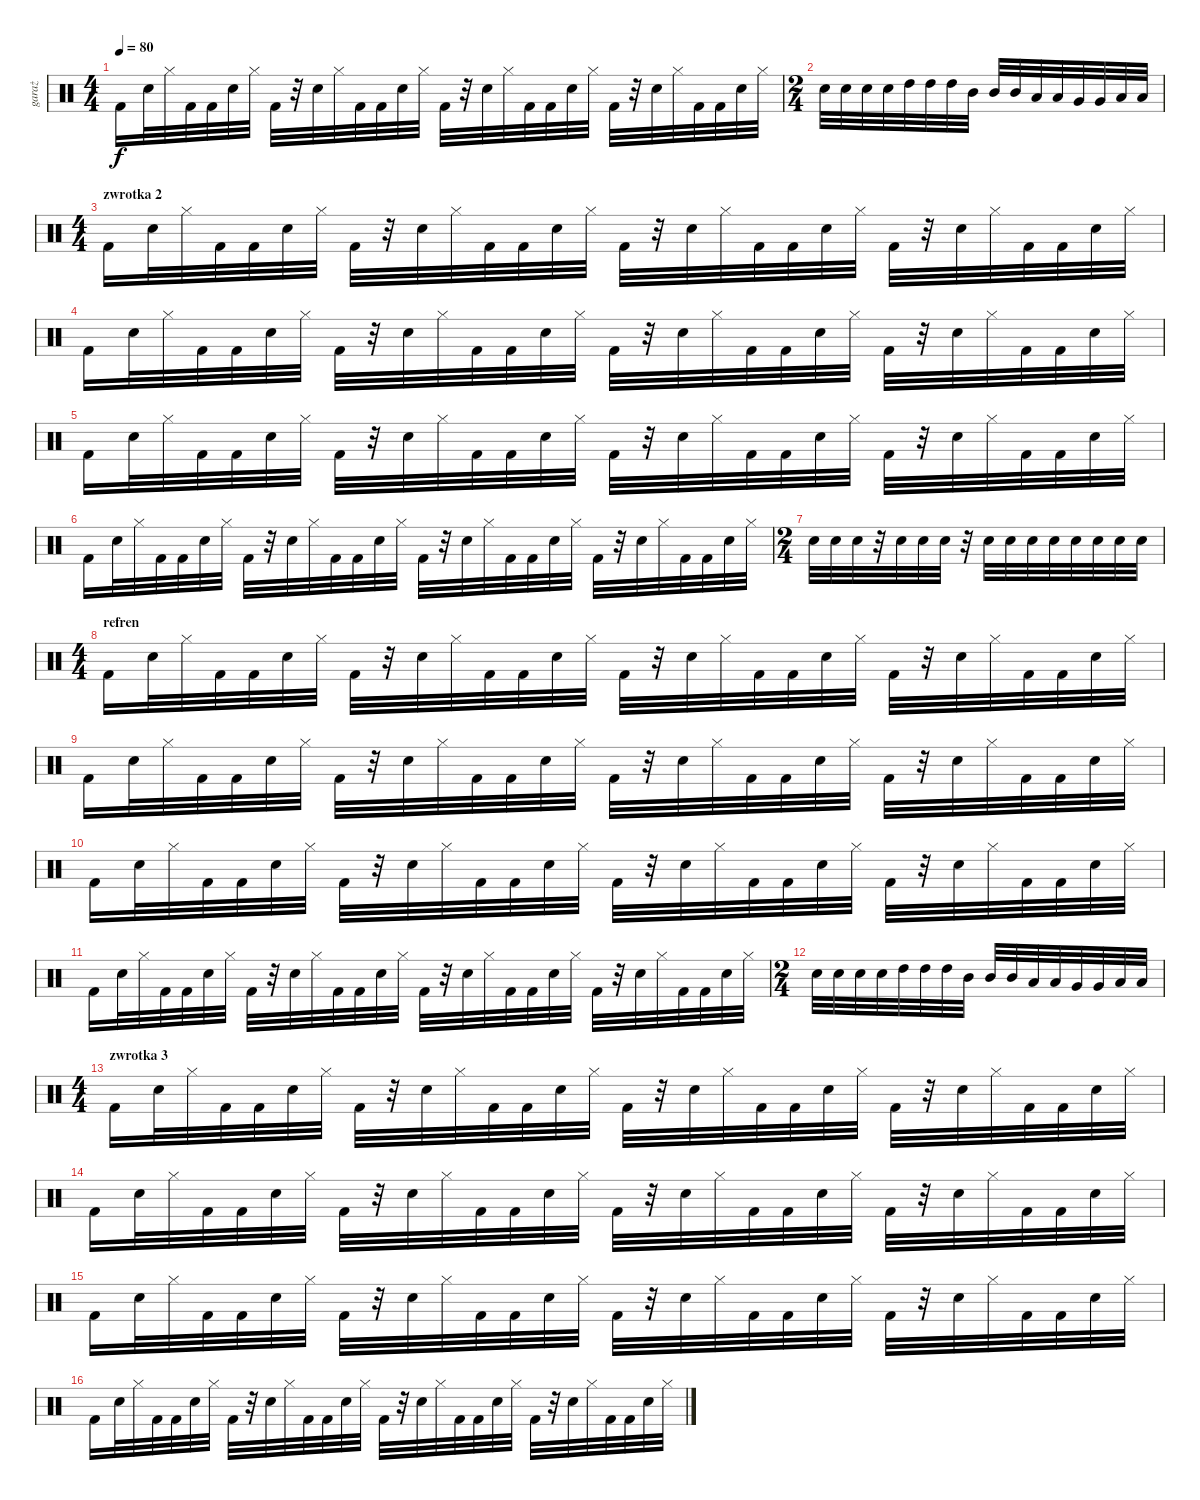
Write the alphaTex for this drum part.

\track ("garaż" "garaż") {instrument percussion}
\staff {score}
\articulation defaults
\ts (4 4)
\tempo 80
\clef neutral
\ks c "Kick (hit) 2".16{dy f} "Snare (hit) 2".32 "Hi-Hat (closed)".32 "Kick (hit) 2".32 "Kick (hit) 2".32 "Snare (hit) 2".32 "Hi-Hat (closed)".32 "Kick (hit) 2".32
r.32 "Snare (hit) 2".32 "Hi-Hat (closed)".32 "Kick (hit) 2".32 "Kick (hit) 2".32 "Snare (hit) 2".32 "Hi-Hat (closed)".32 "Kick (hit) 2".32 r.32 "Snare (hit) 2".32 "Hi-Hat (closed)".32 "Kick (hit) 2".32 "Kick (hit) 2".32 "Snare (hit) 2".32 "Hi-Hat (closed)".32 "Kick (hit) 2".32 r.32 "Snare (hit) 2".32 "Hi-Hat (closed)".32 "Kick (hit) 2".32 "Kick (hit) 2".32 "Snare (hit) 2".32 "Hi-Hat (closed)".32 |
\ts (2 4)
"Snare (hit) 2".32 "Snare (hit) 2".32 "Snare (hit) 2".32 "Snare (hit) 2".32 "High Tom (hit)".32 "High Tom (hit)".32 "High Tom (hit)".32 "Mid Tom (hit)".32 "Mid Tom (hit)".32 "Mid Tom (hit)".32 "Low Tom (hit)".32 "Low Tom (hit)".32 "Very Low Tom (hit)".32 "Very Low Tom (hit)".32 "Low Floor Tom (hit)".32 "Low Floor Tom (hit)".32 |
\ts (4 4)
\section ("" "zwrotka 2")
"Kick (hit) 2".16 "Snare (hit) 2".32 "Hi-Hat (closed)".32 "Kick (hit) 2".32 "Kick (hit) 2".32 "Snare (hit) 2".32 "Hi-Hat (closed)".32 "Kick (hit) 2".32 r.32 "Snare (hit) 2".32 "Hi-Hat (closed)".32 "Kick (hit) 2".32 "Kick (hit) 2".32 "Snare (hit) 2".32 "Hi-Hat (closed)".32 "Kick (hit) 2".32 r.32 "Snare (hit) 2".32 "Hi-Hat (closed)".32 "Kick (hit) 2".32 "Kick (hit) 2".32 "Snare (hit) 2".32 "Hi-Hat (closed)".32 "Kick (hit) 2".32 r.32 "Snare (hit) 2".32 "Hi-Hat (closed)".32 "Kick (hit) 2".32 "Kick (hit) 2".32 "Snare (hit) 2".32 "Hi-Hat (closed)".32 |
"Kick (hit) 2".16 "Snare (hit) 2".32 "Hi-Hat (closed)".32 "Kick (hit) 2".32 "Kick (hit) 2".32 "Snare (hit) 2".32 "Hi-Hat (closed)".32 "Kick (hit) 2".32 r.32 "Snare (hit) 2".32 "Hi-Hat (closed)".32 "Kick (hit) 2".32 "Kick (hit) 2".32 "Snare (hit) 2".32 "Hi-Hat (closed)".32 "Kick (hit) 2".32 r.32 "Snare (hit) 2".32 "Hi-Hat (closed)".32 "Kick (hit) 2".32 "Kick (hit) 2".32 "Snare (hit) 2".32 "Hi-Hat (closed)".32 "Kick (hit) 2".32 r.32 "Snare (hit) 2".32 "Hi-Hat (closed)".32 "Kick (hit) 2".32 "Kick (hit) 2".32 "Snare (hit) 2".32 "Hi-Hat (closed)".32 |
"Kick (hit) 2".16 "Snare (hit) 2".32 "Hi-Hat (closed)".32 "Kick (hit) 2".32 "Kick (hit) 2".32 "Snare (hit) 2".32 "Hi-Hat (closed)".32 "Kick (hit) 2".32 r.32 "Snare (hit) 2".32 "Hi-Hat (closed)".32 "Kick (hit) 2".32 "Kick (hit) 2".32 "Snare (hit) 2".32 "Hi-Hat (closed)".32 "Kick (hit) 2".32 r.32 "Snare (hit) 2".32 "Hi-Hat (closed)".32 "Kick (hit) 2".32 "Kick (hit) 2".32 "Snare (hit) 2".32 "Hi-Hat (closed)".32 "Kick (hit) 2".32 r.32 "Snare (hit) 2".32 "Hi-Hat (closed)".32 "Kick (hit) 2".32 "Kick (hit) 2".32 "Snare (hit) 2".32 "Hi-Hat (closed)".32 |
"Kick (hit) 2".16 "Snare (hit) 2".32 "Hi-Hat (closed)".32 "Kick (hit) 2".32 "Kick (hit) 2".32 "Snare (hit) 2".32 "Hi-Hat (closed)".32 "Kick (hit) 2".32 r.32 "Snare (hit) 2".32 "Hi-Hat (closed)".32 "Kick (hit) 2".32 "Kick (hit) 2".32 "Snare (hit) 2".32 "Hi-Hat (closed)".32 "Kick (hit) 2".32 r.32 "Snare (hit) 2".32 "Hi-Hat (closed)".32 "Kick (hit) 2".32 "Kick (hit) 2".32 "Snare (hit) 2".32 "Hi-Hat (closed)".32 "Kick (hit) 2".32 r.32 "Snare (hit) 2".32 "Hi-Hat (closed)".32 "Kick (hit) 2".32 "Kick (hit) 2".32 "Snare (hit) 2".32 "Hi-Hat (closed)".32 |
\ts (2 4)
"Snare (hit) 2".32 "Snare (hit) 2".32 "Snare (hit) 2".32 r.32 "Snare (hit) 2".32 "Snare (hit) 2".32 "Snare (hit) 2".32 r.32 "Snare (hit) 2".32 "Snare (hit) 2".32 "Snare (hit) 2".32 "Snare (hit) 2".32 "Snare (hit) 2".32 "Snare (hit) 2".32 "Snare (hit) 2".32 "Snare (hit) 2".32 |
\ts (4 4)
\section ("" "refren")
"Kick (hit) 2".16 "Snare (hit) 2".32 "Hi-Hat (closed)".32 "Kick (hit) 2".32 "Kick (hit) 2".32 "Snare (hit) 2".32 "Hi-Hat (closed)".32 "Kick (hit) 2".32 r.32 "Snare (hit) 2".32 "Hi-Hat (closed)".32 "Kick (hit) 2".32 "Kick (hit) 2".32 "Snare (hit) 2".32 "Hi-Hat (closed)".32 "Kick (hit) 2".32 r.32 "Snare (hit) 2".32 "Hi-Hat (closed)".32 "Kick (hit) 2".32 "Kick (hit) 2".32 "Snare (hit) 2".32 "Hi-Hat (closed)".32 "Kick (hit) 2".32 r.32 "Snare (hit) 2".32 "Hi-Hat (closed)".32 "Kick (hit) 2".32 "Kick (hit) 2".32 "Snare (hit) 2".32 "Hi-Hat (closed)".32 |
"Kick (hit) 2".16 "Snare (hit) 2".32 "Hi-Hat (closed)".32 "Kick (hit) 2".32 "Kick (hit) 2".32 "Snare (hit) 2".32 "Hi-Hat (closed)".32 "Kick (hit) 2".32 r.32 "Snare (hit) 2".32 "Hi-Hat (closed)".32 "Kick (hit) 2".32 "Kick (hit) 2".32 "Snare (hit) 2".32 "Hi-Hat (closed)".32 "Kick (hit) 2".32 r.32 "Snare (hit) 2".32 "Hi-Hat (closed)".32 "Kick (hit) 2".32 "Kick (hit) 2".32 "Snare (hit) 2".32 "Hi-Hat (closed)".32 "Kick (hit) 2".32 r.32 "Snare (hit) 2".32 "Hi-Hat (closed)".32 "Kick (hit) 2".32 "Kick (hit) 2".32 "Snare (hit) 2".32 "Hi-Hat (closed)".32 |
"Kick (hit) 2".16 "Snare (hit) 2".32 "Hi-Hat (closed)".32 "Kick (hit) 2".32 "Kick (hit) 2".32 "Snare (hit) 2".32 "Hi-Hat (closed)".32 "Kick (hit) 2".32 r.32 "Snare (hit) 2".32 "Hi-Hat (closed)".32 "Kick (hit) 2".32 "Kick (hit) 2".32 "Snare (hit) 2".32 "Hi-Hat (closed)".32 "Kick (hit) 2".32 r.32 "Snare (hit) 2".32 "Hi-Hat (closed)".32 "Kick (hit) 2".32 "Kick (hit) 2".32 "Snare (hit) 2".32 "Hi-Hat (closed)".32 "Kick (hit) 2".32 r.32 "Snare (hit) 2".32 "Hi-Hat (closed)".32 "Kick (hit) 2".32 "Kick (hit) 2".32 "Snare (hit) 2".32 "Hi-Hat (closed)".32 |
"Kick (hit) 2".16 "Snare (hit) 2".32 "Hi-Hat (closed)".32 "Kick (hit) 2".32 "Kick (hit) 2".32 "Snare (hit) 2".32 "Hi-Hat (closed)".32 "Kick (hit) 2".32 r.32 "Snare (hit) 2".32 "Hi-Hat (closed)".32 "Kick (hit) 2".32 "Kick (hit) 2".32 "Snare (hit) 2".32 "Hi-Hat (closed)".32 "Kick (hit) 2".32 r.32 "Snare (hit) 2".32 "Hi-Hat (closed)".32 "Kick (hit) 2".32 "Kick (hit) 2".32 "Snare (hit) 2".32 "Hi-Hat (closed)".32 "Kick (hit) 2".32 r.32 "Snare (hit) 2".32 "Hi-Hat (closed)".32 "Kick (hit) 2".32 "Kick (hit) 2".32 "Snare (hit) 2".32 "Hi-Hat (closed)".32 |
\ts (2 4)
"Snare (hit) 2".32 "Snare (hit) 2".32 "Snare (hit) 2".32 "Snare (hit) 2".32 "High Tom (hit)".32 "High Tom (hit)".32 "High Tom (hit)".32 "Mid Tom (hit)".32 "Mid Tom (hit)".32 "Mid Tom (hit)".32 "Low Tom (hit)".32 "Low Tom (hit)".32 "Very Low Tom (hit)".32 "Very Low Tom (hit)".32 "Low Floor Tom (hit)".32 "Low Floor Tom (hit)".32 |
\ts (4 4)
\section ("" "zwrotka 3")
"Kick (hit) 2".16 "Snare (hit) 2".32 "Hi-Hat (closed)".32 "Kick (hit) 2".32 "Kick (hit) 2".32 "Snare (hit) 2".32 "Hi-Hat (closed)".32 "Kick (hit) 2".32 r.32 "Snare (hit) 2".32 "Hi-Hat (closed)".32 "Kick (hit) 2".32 "Kick (hit) 2".32 "Snare (hit) 2".32 "Hi-Hat (closed)".32 "Kick (hit) 2".32 r.32 "Snare (hit) 2".32 "Hi-Hat (closed)".32 "Kick (hit) 2".32 "Kick (hit) 2".32 "Snare (hit) 2".32 "Hi-Hat (closed)".32 "Kick (hit) 2".32 r.32 "Snare (hit) 2".32 "Hi-Hat (closed)".32 "Kick (hit) 2".32 "Kick (hit) 2".32 "Snare (hit) 2".32 "Hi-Hat (closed)".32 |
"Kick (hit) 2".16 "Snare (hit) 2".32 "Hi-Hat (closed)".32 "Kick (hit) 2".32 "Kick (hit) 2".32 "Snare (hit) 2".32 "Hi-Hat (closed)".32 "Kick (hit) 2".32 r.32 "Snare (hit) 2".32 "Hi-Hat (closed)".32 "Kick (hit) 2".32 "Kick (hit) 2".32 "Snare (hit) 2".32 "Hi-Hat (closed)".32 "Kick (hit) 2".32 r.32 "Snare (hit) 2".32 "Hi-Hat (closed)".32 "Kick (hit) 2".32 "Kick (hit) 2".32 "Snare (hit) 2".32 "Hi-Hat (closed)".32 "Kick (hit) 2".32 r.32 "Snare (hit) 2".32 "Hi-Hat (closed)".32 "Kick (hit) 2".32 "Kick (hit) 2".32 "Snare (hit) 2".32 "Hi-Hat (closed)".32 |
"Kick (hit) 2".16 "Snare (hit) 2".32 "Hi-Hat (closed)".32 "Kick (hit) 2".32 "Kick (hit) 2".32 "Snare (hit) 2".32 "Hi-Hat (closed)".32 "Kick (hit) 2".32 r.32 "Snare (hit) 2".32 "Hi-Hat (closed)".32 "Kick (hit) 2".32 "Kick (hit) 2".32 "Snare (hit) 2".32 "Hi-Hat (closed)".32 "Kick (hit) 2".32 r.32 "Snare (hit) 2".32 "Hi-Hat (closed)".32 "Kick (hit) 2".32 "Kick (hit) 2".32 "Snare (hit) 2".32 "Hi-Hat (closed)".32 "Kick (hit) 2".32 r.32 "Snare (hit) 2".32 "Hi-Hat (closed)".32 "Kick (hit) 2".32 "Kick (hit) 2".32 "Snare (hit) 2".32 "Hi-Hat (closed)".32 |
"Kick (hit) 2".16 "Snare (hit) 2".32 "Hi-Hat (closed)".32 "Kick (hit) 2".32 "Kick (hit) 2".32 "Snare (hit) 2".32 "Hi-Hat (closed)".32 "Kick (hit) 2".32 r.32 "Snare (hit) 2".32 "Hi-Hat (closed)".32 "Kick (hit) 2".32 "Kick (hit) 2".32 "Snare (hit) 2".32 "Hi-Hat (closed)".32 "Kick (hit) 2".32 r.32 "Snare (hit) 2".32 "Hi-Hat (closed)".32 "Kick (hit) 2".32 "Kick (hit) 2".32 "Snare (hit) 2".32 "Hi-Hat (closed)".32 "Kick (hit) 2".32 r.32 "Snare (hit) 2".32 "Hi-Hat (closed)".32 "Kick (hit) 2".32 "Kick (hit) 2".32 "Snare (hit) 2".32 "Hi-Hat (closed)".32
